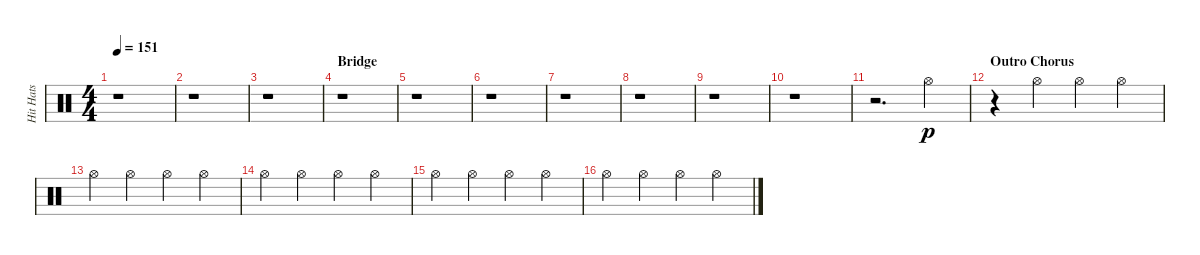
\track ("Hit Hats" "Hit Hats") {instrument percussion}
\staff {score}
\articulation defaults
\ts (4 4)
\tempo 151
\clef neutral
\ks c
r.1{dy p} |
r.1 |
r.1 |
\section ("" "Bridge")
r.1 |
r.1 |
r.1 |
r.1 |
r.1 |
r.1 |
r.1 |
r.2{d} "Hi-Hat (open)".4 |
\section ("" "Outro Chorus")
r.4 "Hi-Hat (open)".4 "Hi-Hat (open)".4 "Hi-Hat (open)".4 |
"Hi-Hat (open)".4 "Hi-Hat (open)".4 "Hi-Hat (open)".4 "Hi-Hat (open)".4 |
"Hi-Hat (open)".4 "Hi-Hat (open)".4 "Hi-Hat (open)".4 "Hi-Hat (open)".4 |
"Hi-Hat (open)".4 "Hi-Hat (open)".4 "Hi-Hat (open)".4 "Hi-Hat (open)".4 |
"Hi-Hat (open)".4 "Hi-Hat (open)".4 "Hi-Hat (open)".4 "Hi-Hat (open)".4
